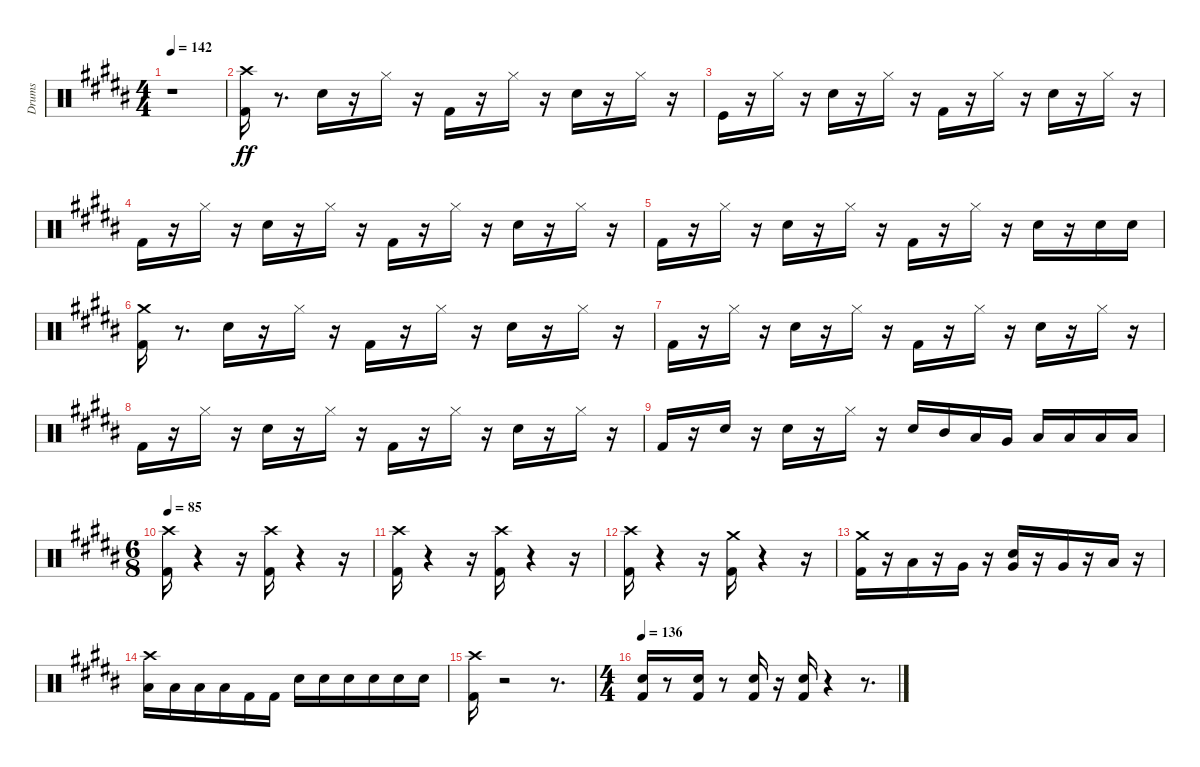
\track ("Drums" "Drums") {instrument percussion}
\staff {score}
\articulation defaults
\ts (4 4)
\tempo 142
\clef neutral
\ks b
r.1{dy ff} |
("Kick (hit) 2" "Crash high (hit)").16 r.8{d} "Electric Snare (hit)".16 r.16 "Hi-Hat (closed)".16 r.16 "Kick (hit) 2".16 r.16 "Hi-Hat (closed)".16 r.16 "Electric Snare (hit)".16 r.16 "Hi-Hat (closed)".16 r.16 |
"Kick (hit)".16 r.16 "Hi-Hat (closed)".16 r.16 "Electric Snare (hit)".16 r.16 "Hi-Hat (closed)".16 r.16 "Kick (hit) 2".16 r.16 "Hi-Hat (closed)".16 r.16 "Electric Snare (hit)".16 r.16 "Hi-Hat (closed)".16 r.16 |
"Kick (hit) 2".16 r.16 "Hi-Hat (closed)".16 r.16 "Electric Snare (hit)".16 r.16 "Hi-Hat (closed)".16 r.16 "Kick (hit) 2".16 r.16 "Hi-Hat (closed)".16 r.16 "Electric Snare (hit)".16 r.16 "Hi-Hat (closed)".16 r.16 |
"Kick (hit) 2".16 r.16 "Hi-Hat (closed)".16 r.16 "Electric Snare (hit)".16 r.16 "Hi-Hat (closed)".16 r.16 "Kick (hit) 2".16 r.16 "Hi-Hat (closed)".16 r.16 "Electric Snare (hit)".16 r.16 "Electric Snare (hit)".16 "Electric Snare (hit)".16 |
("Kick (hit) 2" "Crash medium (hit)").16 r.8{d} "Electric Snare (hit)".16 r.16 "Hi-Hat (closed)".16 r.16 "Kick (hit) 2".16 r.16 "Hi-Hat (closed)".16 r.16 "Electric Snare (hit)".16 r.16 "Hi-Hat (closed)".16 r.16 |
"Kick (hit) 2".16 r.16 "Hi-Hat (closed)".16 r.16 "Electric Snare (hit)".16 r.16 "Hi-Hat (closed)".16 r.16 "Kick (hit) 2".16 r.16 "Hi-Hat (closed)".16 r.16 "Electric Snare (hit)".16 r.16 "Hi-Hat (closed)".16 r.16 |
"Kick (hit) 2".16 r.16 "Hi-Hat (closed)".16 r.16 "Electric Snare (hit)".16 r.16 "Hi-Hat (closed)".16 r.16 "Kick (hit) 2".16 r.16 "Hi-Hat (closed)".16 r.16 "Electric Snare (hit)".16 r.16 "Hi-Hat (closed)".16 r.16 |
"Kick (hit) 2".16 r.16 "Electric Snare (hit)".16 r.16 "Electric Snare (hit)".16 r.16 "Hi-Hat (closed)".16 r.16 "Electric Snare (hit)".16 "Mid Tom (hit)".16 "Low Tom (hit)".16 "Very Low Tom (hit)".16 "Low Floor Tom (hit)".16 "Low Floor Tom (hit)".16 "Low Floor Tom (hit)".16 "Low Floor Tom (hit)".16 |
\ts (6 8)
\tempo 85
("Kick (hit) 2" "Crash high (hit)").16 r.4 r.16 ("Kick (hit) 2" "Crash high (hit)").16 r.4 r.16 |
("Kick (hit) 2" "Crash high (hit)").16 r.4 r.16 ("Kick (hit) 2" "Crash high (hit)").16 r.4 r.16 |
("Kick (hit) 2" "Crash high (hit)").16 r.4 r.16 ("Kick (hit) 2" "Crash medium (hit)").16 r.4 r.16 |
("Kick (hit) 2" "Crash medium (hit)").16 r.16 "Low Tom (hit)".16 r.16 "Very Low Tom (hit)".16 r.16 ("Electric Snare (hit)" "Very Low Tom (hit)").16 r.16 "Very Low Tom (hit)".16 r.16 "Low Floor Tom (hit)".16 r.16 |
("Low Floor Tom (hit)" "Crash high (hit)").16 "Low Floor Tom (hit)".16 "Low Floor Tom (hit)".16 "Low Floor Tom (hit)".16 "Kick (hit) 2".16 "Kick (hit) 2".16 "Electric Snare (hit)".16 "Electric Snare (hit)".16 "Electric Snare (hit)".16 "Electric Snare (hit)".16 "Electric Snare (hit)".16 "Electric Snare (hit)".16 |
("Kick (hit) 2" "Crash high (hit)").16 r.2 r.8{d} |
\ts (4 4)
\tempo 136
("Kick (hit) 2" "Electric Snare (hit)").16 r.8 ("Kick (hit) 2" "Electric Snare (hit)").16 r.8 ("Kick (hit) 2" "Electric Snare (hit)").16 r.16 ("Kick (hit) 2" "Electric Snare (hit)").16 r.4 r.8{d}
